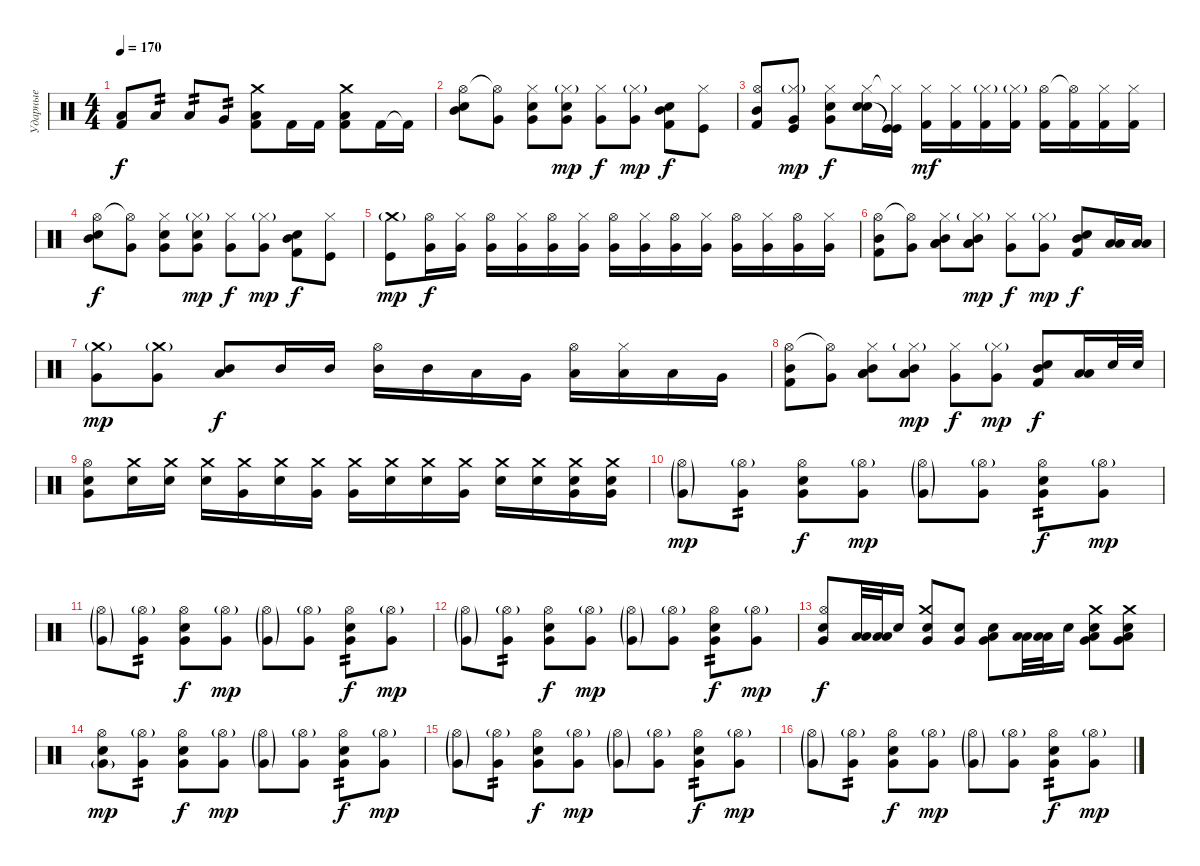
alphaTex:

\track ("Ударные" "Ударные") {instrument percussion}
\staff {score}
\articulation defaults
\ts (4 4)
\tempo 170
\clef neutral
\ks c
("Low Tom (hit)"{t} "Kick (hit) 2"{t}).8{dy f} "Low Floor Tom (hit)".8{tp 2} "Low Tom (hit)".8{tp 2} "Very Low Tom (hit)".8{tp 2} ("Crash medium (hit)" "Low Tom (hit)" "Kick (hit) 2").8 "Kick (hit) 2".16 "Kick (hit) 2".16 ("Crash medium (hit)" "Low Tom (hit)" "Kick (hit) 2").8 "Kick (hit) 2".16 "Kick (hit) 2"{t}.16 |
("Hi-Hat (open)" "Electric Snare (hit)" "Mid Tom (hit)").8 ("Hi-Hat (open)"{t} "Very Low Tom (hit)").8 ("Hi-Hat (closed)" "Electric Snare (hit)" "Very Low Tom (hit)").8 ("Hi-Hat (closed)"{g} "Electric Snare (hit)" "Very Low Tom (hit)").8{dy mp} ("Hi-Hat (closed)" "Very Low Tom (hit)").8{dy f} ("Hi-Hat (closed)"{g} "Very Low Tom (hit)").8{dy mp} ("Kick (hit) 2" "Electric Snare (hit)" "Mid Tom (hit)").8{dy f} ("Hi-Hat (closed)" "Kick (hit)").8 |
("Hi-Hat (open)" "Kick (hit) 2" "Mid Tom (hit)").8 ("Hi-Hat (closed)"{g} "Kick (hit)" "Very Low Tom (hit)").8{dy mp} ("Hi-Hat (closed)" "Electric Snare (hit)" "Very Low Tom (hit)").8{dy f} ("Hi-Hat (closed)" "Snare (hit) 2" "Snare (hit) 2").16 ("Hi-Hat (closed)"{t} "Kick (hit)"{t} "Kick (hit)"{t}).16 ("Hi-Hat (closed)" "Kick (hit) 2").16{dy mf} ("Hi-Hat (closed)" "Kick (hit) 2").16 ("Hi-Hat (closed)"{g} "Kick (hit) 2").16 ("Hi-Hat (closed)"{g} "Kick (hit) 2").16 ("Hi-Hat (open)" "Kick (hit) 2").16 ("Hi-Hat (open)"{t} "Kick (hit) 2").16 ("Hi-Hat (closed)" "Kick (hit) 2").16 ("Hi-Hat (closed)" "Kick (hit) 2").16 |
("Hi-Hat (open)" "Electric Snare (hit)" "Mid Tom (hit)").8{dy f} ("Hi-Hat (open)"{t} "Very Low Tom (hit)").8 ("Hi-Hat (closed)" "Electric Snare (hit)" "Very Low Tom (hit)").8 ("Hi-Hat (closed)"{g} "Electric Snare (hit)" "Very Low Tom (hit)").8{dy mp} ("Hi-Hat (closed)" "Very Low Tom (hit)").8{dy f} ("Hi-Hat (closed)"{g} "Very Low Tom (hit)").8{dy mp} ("Kick (hit) 2" "Electric Snare (hit)" "Mid Tom (hit)").8{dy f} ("Hi-Hat (closed)" "Kick (hit)").8 |
("Crash medium (hit)"{g} "Kick (hit)").8{dy mp} ("Hi-Hat (open)" "Very Low Tom (hit)").16{dy f} ("Hi-Hat (closed)" "Very Low Tom (hit)").16 ("Hi-Hat (open)" "Very Low Tom (hit)").16 ("Hi-Hat (closed)" "Very Low Tom (hit)").16 ("Hi-Hat (open)" "Very Low Tom (hit)").16 ("Hi-Hat (closed)" "Very Low Tom (hit)").16 ("Hi-Hat (open)" "Very Low Tom (hit)").16 ("Hi-Hat (closed)" "Very Low Tom (hit)").16 ("Hi-Hat (open)" "Very Low Tom (hit)").16 ("Hi-Hat (closed)" "Very Low Tom (hit)").16 ("Hi-Hat (open)" "Very Low Tom (hit)").16 ("Hi-Hat (closed)" "Very Low Tom (hit)").16 ("Hi-Hat (open)" "Very Low Tom (hit)").16 ("Hi-Hat (closed)" "Very Low Tom (hit)").16 |
("Hi-Hat (open)" "Kick (hit) 2" "Mid Tom (hit)").8 ("Hi-Hat (open)"{t} "Very Low Tom (hit)").8 ("Hi-Hat (closed)" "Mid Tom (hit)" "Low Tom (hit)" "Low Tom (hit)").8 ("Hi-Hat (closed)"{g} "Mid Tom (hit)" "Low Tom (hit)" "Low Tom (hit)").8{dy mp} ("Hi-Hat (closed)" "Very Low Tom (hit)").8{dy f} ("Hi-Hat (closed)"{g} "Very Low Tom (hit)").8{dy mp} ("Kick (hit) 2" "Electric Snare (hit)" "Mid Tom (hit)").8{dy f} ("Low Tom (hit)" "Low Tom (hit)").16 ("Low Tom (hit)" "Low Tom (hit)").16 |
("Crash medium (hit)"{g} "Very Low Tom (hit)").8{dy mp} ("Crash medium (hit)"{g} "Very Low Tom (hit)").8 ("Mid Tom (hit)" "Low Tom (hit)").8{dy f} "Mid Tom (hit)".16 "Mid Tom (hit)".16 ("Hi-Hat (open)" "Mid Tom (hit)").16 "Mid Tom (hit)".16 "Low Tom (hit)".16 "Very Low Tom (hit)".16 ("Hi-Hat (open)" "Low Tom (hit)").16 ("Hi-Hat (closed)" "Low Tom (hit)").16 "Low Tom (hit)".16 "Very Low Tom (hit)".16 |
("Hi-Hat (open)" "Kick (hit) 2" "Mid Tom (hit)").8 ("Hi-Hat (open)"{t} "Very Low Tom (hit)").8 ("Hi-Hat (closed)" "Mid Tom (hit)" "Low Tom (hit)" "Low Tom (hit)").8 ("Hi-Hat (closed)"{g} "Mid Tom (hit)" "Low Tom (hit)" "Low Tom (hit)").8{dy mp} ("Hi-Hat (closed)" "Very Low Tom (hit)").8{dy f} ("Hi-Hat (closed)"{g} "Very Low Tom (hit)").8{dy mp} ("Kick (hit) 2" "Electric Snare (hit)" "Mid Tom (hit)").8{dy f} ("Low Tom (hit)" "Low Tom (hit)").16 "Snare (hit) 2".32 "Snare (hit) 2".32 |
("Hi-Hat (open)" "Snare (hit) 2" "Very Low Tom (hit)").8 ("Crash medium (hit)" "Snare (hit) 2").16 ("Crash medium (hit)" "Snare (hit) 2").16 ("Crash medium (hit)" "Snare (hit) 2").16 ("Crash medium (hit)" "Very Low Tom (hit)").16 ("Crash medium (hit)" "Snare (hit) 2").16 ("Crash medium (hit)" "Very Low Tom (hit)").16 ("Crash medium (hit)" "Very Low Tom (hit)").16 ("Crash medium (hit)" "Snare (hit) 2").16 ("Crash medium (hit)" "Snare (hit) 2").16 ("Crash medium (hit)" "Very Low Tom (hit)").16 ("Crash medium (hit)" "Snare (hit) 2").16 ("Crash medium (hit)" "Snare (hit) 2").16 ("Crash medium (hit)" "Snare (hit) 2" "Very Low Tom (hit)").16 ("Crash medium (hit)" "Snare (hit) 2" "Very Low Tom (hit)").16 |
("Hi-Hat (open)"{g} "Very Low Tom (hit)"{g}).8{dy mp} ("Hi-Hat (open)"{g} "Very Low Tom (hit)").8{tp 2} ("Hi-Hat (open)" "Electric Snare (hit)" "Very Low Tom (hit)").8{dy f} ("Hi-Hat (open)"{g} "Very Low Tom (hit)").8{dy mp} ("Hi-Hat (open)"{g} "Very Low Tom (hit)"{g}).8 ("Hi-Hat (open)"{g} "Very Low Tom (hit)").8 ("Hi-Hat (open)" "Electric Snare (hit)" "Very Low Tom (hit)").8{tp 2 dy f} ("Hi-Hat (open)"{g} "Very Low Tom (hit)").8{dy mp} |
("Hi-Hat (open)"{g} "Very Low Tom (hit)"{g}).8 ("Hi-Hat (open)"{g} "Very Low Tom (hit)").8{tp 2} ("Hi-Hat (open)" "Electric Snare (hit)" "Very Low Tom (hit)").8{dy f} ("Hi-Hat (open)"{g} "Very Low Tom (hit)").8{dy mp} ("Hi-Hat (open)"{g} "Very Low Tom (hit)"{g}).8 ("Hi-Hat (open)"{g} "Very Low Tom (hit)").8 ("Hi-Hat (open)" "Electric Snare (hit)" "Very Low Tom (hit)").8{tp 2 dy f} ("Hi-Hat (open)"{g} "Very Low Tom (hit)").8{dy mp} |
("Hi-Hat (open)"{g} "Very Low Tom (hit)"{g}).8 ("Hi-Hat (open)"{g} "Very Low Tom (hit)").8{tp 2} ("Hi-Hat (open)" "Electric Snare (hit)" "Very Low Tom (hit)").8{dy f} ("Hi-Hat (open)"{g} "Very Low Tom (hit)").8{dy mp} ("Hi-Hat (open)"{g} "Very Low Tom (hit)"{g}).8 ("Hi-Hat (open)"{g} "Very Low Tom (hit)").8 ("Hi-Hat (open)" "Electric Snare (hit)" "Very Low Tom (hit)").8{tp 2 dy f} ("Hi-Hat (open)"{g} "Very Low Tom (hit)").8{dy mp} |
("Hi-Hat (open)" "Electric Snare (hit)" "Very Low Tom (hit)").8{dy f} ("Low Tom (hit)" "Low Tom (hit)").32 ("Low Tom (hit)" "Low Tom (hit)").32 "Electric Snare (hit)".16 ("Crash medium (hit)" "Electric Snare (hit)" "Very Low Tom (hit)").8 ("Electric Snare (hit)" "Very Low Tom (hit)").8 ("Electric Snare (hit)" "Low Tom (hit)" "Very Low Tom (hit)").8 ("Low Tom (hit)" "Low Tom (hit)").32 ("Low Tom (hit)" "Low Tom (hit)").32 "Electric Snare (hit)".16 ("Crash medium (hit)" "Electric Snare (hit)" "Low Tom (hit)" "Very Low Tom (hit)").8 ("Crash medium (hit)" "Electric Snare (hit)" "Low Tom (hit)" "Very Low Tom (hit)").8 |
("Hi-Hat (open)" "Electric Snare (hit)" "Very Low Tom (hit)"{g}).8{dy mp} ("Hi-Hat (open)"{g} "Very Low Tom (hit)").8{tp 2} ("Hi-Hat (open)" "Electric Snare (hit)" "Very Low Tom (hit)").8{dy f} ("Hi-Hat (open)"{g} "Very Low Tom (hit)").8{dy mp} ("Hi-Hat (open)"{g} "Very Low Tom (hit)"{g}).8 ("Hi-Hat (open)"{g} "Very Low Tom (hit)").8 ("Hi-Hat (open)" "Electric Snare (hit)" "Very Low Tom (hit)").8{tp 2 dy f} ("Hi-Hat (open)"{g} "Very Low Tom (hit)").8{dy mp} |
("Hi-Hat (open)"{g} "Very Low Tom (hit)"{g}).8 ("Hi-Hat (open)"{g} "Very Low Tom (hit)").8{tp 2} ("Hi-Hat (open)" "Electric Snare (hit)" "Very Low Tom (hit)").8{dy f} ("Hi-Hat (open)"{g} "Very Low Tom (hit)").8{dy mp} ("Hi-Hat (open)"{g} "Very Low Tom (hit)"{g}).8 ("Hi-Hat (open)"{g} "Very Low Tom (hit)").8 ("Hi-Hat (open)" "Electric Snare (hit)" "Very Low Tom (hit)").8{tp 2 dy f} ("Hi-Hat (open)"{g} "Very Low Tom (hit)").8{dy mp} |
("Hi-Hat (open)"{g} "Very Low Tom (hit)"{g}).8 ("Hi-Hat (open)"{g} "Very Low Tom (hit)").8{tp 2} ("Hi-Hat (open)" "Electric Snare (hit)" "Very Low Tom (hit)").8{dy f} ("Hi-Hat (open)"{g} "Very Low Tom (hit)").8{dy mp} ("Hi-Hat (open)"{g} "Very Low Tom (hit)"{g}).8 ("Hi-Hat (open)"{g} "Very Low Tom (hit)").8 ("Hi-Hat (open)" "Electric Snare (hit)" "Very Low Tom (hit)").8{tp 2 dy f} ("Hi-Hat (open)"{g} "Very Low Tom (hit)").8{dy mp}
